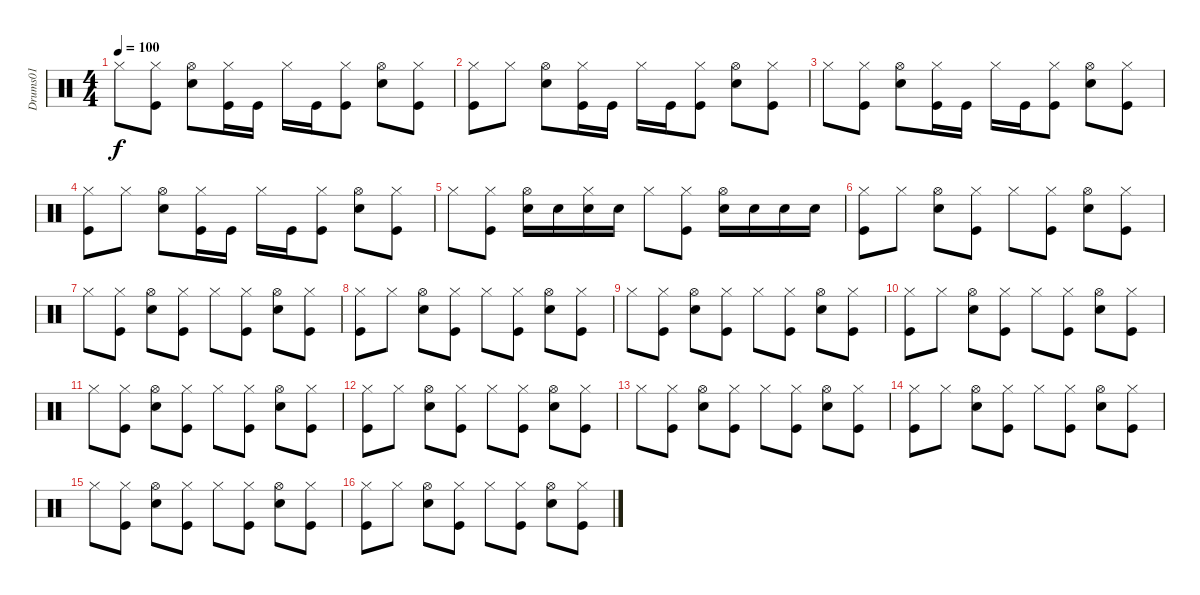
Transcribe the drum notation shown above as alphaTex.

\track ("Drums01" "Drums01") {instrument percussion}
\staff {score}
\articulation defaults
\ts (4 4)
\tempo 100
\clef neutral
\ks c "Hi-Hat (closed)".8{dy f}
("Hi-Hat (closed)" "Kick (hit)").8 ("Hi-Hat (open)" "Snare (hit) 2").8 ("Hi-Hat (closed)" "Kick (hit)").16 "Kick (hit)".16 "Hi-Hat (closed)".16 "Kick (hit)".16 ("Hi-Hat (closed)" "Kick (hit)").8 ("Hi-Hat (open)" "Snare (hit) 2").8 ("Hi-Hat (closed)" "Kick (hit)").8 |
("Hi-Hat (closed)" "Kick (hit)").8 "Hi-Hat (closed)".8 ("Hi-Hat (open)" "Snare (hit) 2").8 ("Hi-Hat (closed)" "Kick (hit)").16 "Kick (hit)".16 "Hi-Hat (closed)".16 "Kick (hit)".16 ("Hi-Hat (closed)" "Kick (hit)").8 ("Hi-Hat (open)" "Snare (hit) 2").8 ("Hi-Hat (closed)" "Kick (hit)").8 |
"Hi-Hat (closed)".8 ("Hi-Hat (closed)" "Kick (hit)").8 ("Hi-Hat (open)" "Snare (hit) 2").8 ("Hi-Hat (closed)" "Kick (hit)").16 "Kick (hit)".16 "Hi-Hat (closed)".16 "Kick (hit)".16 ("Hi-Hat (closed)" "Kick (hit)").8 ("Hi-Hat (open)" "Snare (hit) 2").8 ("Hi-Hat (closed)" "Kick (hit)").8 |
("Hi-Hat (closed)" "Kick (hit)").8 "Hi-Hat (closed)".8 ("Hi-Hat (open)" "Snare (hit) 2").8 ("Hi-Hat (closed)" "Kick (hit)").16 "Kick (hit)".16 "Hi-Hat (closed)".16 "Kick (hit)".16 ("Hi-Hat (closed)" "Kick (hit)").8 ("Hi-Hat (open)" "Snare (hit) 2").8 ("Hi-Hat (closed)" "Kick (hit)").8 |
"Hi-Hat (closed)".8 ("Hi-Hat (closed)" "Kick (hit)").8 ("Hi-Hat (open)" "Snare (hit) 2").16 "Snare (hit) 2".16 ("Hi-Hat (closed)" "Snare (hit) 2").16 "Snare (hit) 2".16 "Hi-Hat (closed)".8 ("Hi-Hat (closed)" "Kick (hit)").8 ("Hi-Hat (open)" "Snare (hit) 2").16 "Snare (hit) 2".16 "Snare (hit) 2".16 "Snare (hit) 2".16 |
("Hi-Hat (closed)" "Kick (hit)").8 "Hi-Hat (closed)".8 ("Hi-Hat (open)" "Snare (hit) 2").8 ("Hi-Hat (closed)" "Kick (hit)").8 "Hi-Hat (closed)".8 ("Hi-Hat (closed)" "Kick (hit)").8 ("Hi-Hat (open)" "Snare (hit) 2").8 ("Hi-Hat (closed)" "Kick (hit)").8 |
"Hi-Hat (closed)".8 ("Hi-Hat (closed)" "Kick (hit)").8 ("Hi-Hat (open)" "Snare (hit) 2").8 ("Hi-Hat (closed)" "Kick (hit)").8 "Hi-Hat (closed)".8 ("Hi-Hat (closed)" "Kick (hit)").8 ("Hi-Hat (open)" "Snare (hit) 2").8 ("Hi-Hat (closed)" "Kick (hit)").8 |
("Hi-Hat (closed)" "Kick (hit)").8 "Hi-Hat (closed)".8 ("Hi-Hat (open)" "Snare (hit) 2").8 ("Hi-Hat (closed)" "Kick (hit)").8 "Hi-Hat (closed)".8 ("Hi-Hat (closed)" "Kick (hit)").8 ("Hi-Hat (open)" "Snare (hit) 2").8 ("Hi-Hat (closed)" "Kick (hit)").8 |
"Hi-Hat (closed)".8 ("Hi-Hat (closed)" "Kick (hit)").8 ("Hi-Hat (open)" "Snare (hit) 2").8 ("Hi-Hat (closed)" "Kick (hit)").8 "Hi-Hat (closed)".8 ("Hi-Hat (closed)" "Kick (hit)").8 ("Hi-Hat (open)" "Snare (hit) 2").8 ("Hi-Hat (closed)" "Kick (hit)").8 |
("Hi-Hat (closed)" "Kick (hit)").8 "Hi-Hat (closed)".8 ("Hi-Hat (open)" "Snare (hit) 2").8 ("Hi-Hat (closed)" "Kick (hit)").8 "Hi-Hat (closed)".8 ("Hi-Hat (closed)" "Kick (hit)").8 ("Hi-Hat (open)" "Snare (hit) 2").8 ("Hi-Hat (closed)" "Kick (hit)").8 |
"Hi-Hat (closed)".8 ("Hi-Hat (closed)" "Kick (hit)").8 ("Hi-Hat (open)" "Snare (hit) 2").8 ("Hi-Hat (closed)" "Kick (hit)").8 "Hi-Hat (closed)".8 ("Hi-Hat (closed)" "Kick (hit)").8 ("Hi-Hat (open)" "Snare (hit) 2").8 ("Hi-Hat (closed)" "Kick (hit)").8 |
("Hi-Hat (closed)" "Kick (hit)").8 "Hi-Hat (closed)".8 ("Hi-Hat (open)" "Snare (hit) 2").8 ("Hi-Hat (closed)" "Kick (hit)").8 "Hi-Hat (closed)".8 ("Hi-Hat (closed)" "Kick (hit)").8 ("Hi-Hat (open)" "Snare (hit) 2").8 ("Hi-Hat (closed)" "Kick (hit)").8 |
"Hi-Hat (closed)".8 ("Hi-Hat (closed)" "Kick (hit)").8 ("Hi-Hat (open)" "Snare (hit) 2").8 ("Hi-Hat (closed)" "Kick (hit)").8 "Hi-Hat (closed)".8 ("Hi-Hat (closed)" "Kick (hit)").8 ("Hi-Hat (open)" "Snare (hit) 2").8 ("Hi-Hat (closed)" "Kick (hit)").8 |
("Hi-Hat (closed)" "Kick (hit)").8 "Hi-Hat (closed)".8 ("Hi-Hat (open)" "Snare (hit) 2").8 ("Hi-Hat (closed)" "Kick (hit)").8 "Hi-Hat (closed)".8 ("Hi-Hat (closed)" "Kick (hit)").8 ("Hi-Hat (open)" "Snare (hit) 2").8 ("Hi-Hat (closed)" "Kick (hit)").8 |
"Hi-Hat (closed)".8 ("Hi-Hat (closed)" "Kick (hit)").8 ("Hi-Hat (open)" "Snare (hit) 2").8 ("Hi-Hat (closed)" "Kick (hit)").8 "Hi-Hat (closed)".8 ("Hi-Hat (closed)" "Kick (hit)").8 ("Hi-Hat (open)" "Snare (hit) 2").8 ("Hi-Hat (closed)" "Kick (hit)").8 |
("Hi-Hat (closed)" "Kick (hit)").8 "Hi-Hat (closed)".8 ("Hi-Hat (open)" "Snare (hit) 2").8 ("Hi-Hat (closed)" "Kick (hit)").8 "Hi-Hat (closed)".8 ("Hi-Hat (closed)" "Kick (hit)").8 ("Hi-Hat (open)" "Snare (hit) 2").8 ("Hi-Hat (closed)" "Kick (hit)").8
